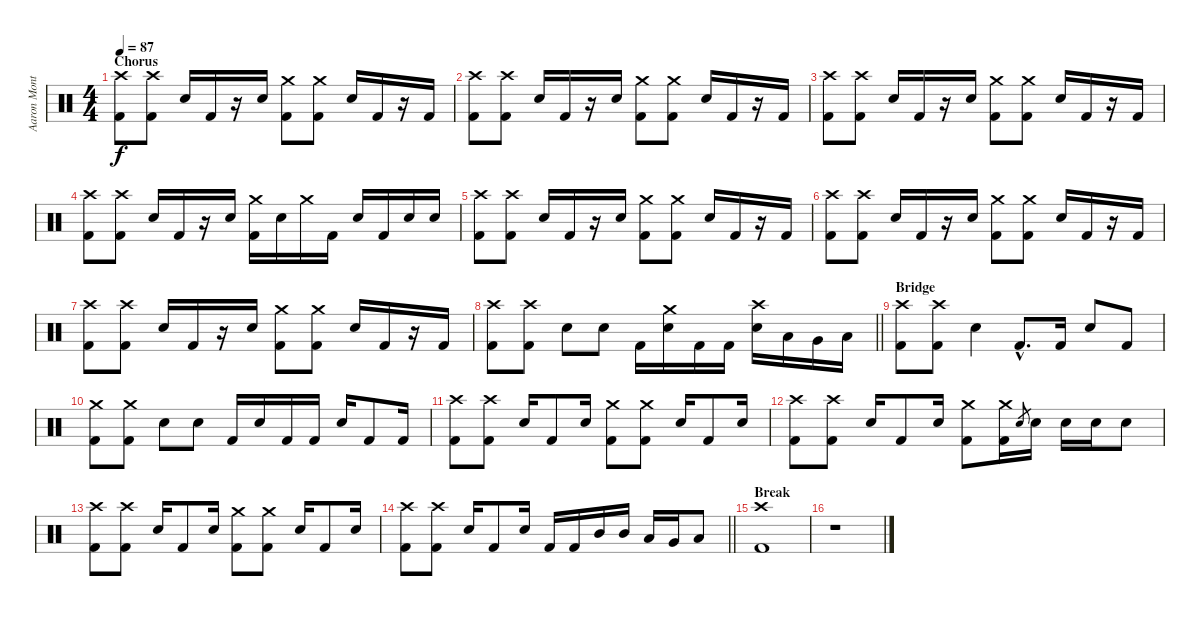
\track ("Aaron Montgomery (Drums)" "Aaron Mont") {instrument percussion}
\staff {score}
\articulation defaults
\ts (4 4)
\section ("" "Chorus")
\tempo 87
\clef neutral
\ks c
("Crash high (hit)" "Kick (hit) 2").8{dy f} ("Crash high (hit)" "Kick (hit) 2").8 "Electric Snare (hit)".16 "Kick (hit) 2".16 r.16 "Electric Snare (hit)".16 ("Crash medium (hit)" "Kick (hit) 2").8 ("Crash medium (hit)" "Kick (hit) 2").8 "Electric Snare (hit)".16 "Kick (hit) 2".16 r.16 "Kick (hit) 2".16 |
("Crash high (hit)" "Kick (hit) 2").8 ("Crash high (hit)" "Kick (hit) 2").8 "Electric Snare (hit)".16 "Kick (hit) 2".16 r.16 "Electric Snare (hit)".16 ("Crash medium (hit)" "Kick (hit) 2").8 ("Crash medium (hit)" "Kick (hit) 2").8 "Electric Snare (hit)".16 "Kick (hit) 2".16 r.16 "Kick (hit) 2".16 |
("Crash high (hit)" "Kick (hit) 2").8 ("Crash high (hit)" "Kick (hit) 2").8 "Electric Snare (hit)".16 "Kick (hit) 2".16 r.16 "Electric Snare (hit)".16 ("Crash medium (hit)" "Kick (hit) 2").8 ("Crash medium (hit)" "Kick (hit) 2").8 "Electric Snare (hit)".16 "Kick (hit) 2".16 r.16 "Kick (hit) 2".16 |
("Crash high (hit)" "Kick (hit) 2").8 ("Crash high (hit)" "Kick (hit) 2").8 "Electric Snare (hit)".16 "Kick (hit) 2".16 r.16 "Electric Snare (hit)".16 ("Crash medium (hit)" "Kick (hit) 2").16 "Electric Snare (hit)".16 "Crash medium (hit)".16 "Kick (hit) 2".16 "Electric Snare (hit)".16 "Kick (hit) 2".16 "Electric Snare (hit)".16 "Electric Snare (hit)".16 |
("Crash high (hit)" "Kick (hit) 2").8 ("Crash high (hit)" "Kick (hit) 2").8 "Electric Snare (hit)".16 "Kick (hit) 2".16 r.16 "Electric Snare (hit)".16 ("Crash medium (hit)" "Kick (hit) 2").8 ("Crash medium (hit)" "Kick (hit) 2").8 "Electric Snare (hit)".16 "Kick (hit) 2".16 r.16 "Kick (hit) 2".16 |
("Crash high (hit)" "Kick (hit) 2").8 ("Crash high (hit)" "Kick (hit) 2").8 "Electric Snare (hit)".16 "Kick (hit) 2".16 r.16 "Electric Snare (hit)".16 ("Crash medium (hit)" "Kick (hit) 2").8 ("Crash medium (hit)" "Kick (hit) 2").8 "Electric Snare (hit)".16 "Kick (hit) 2".16 r.16 "Kick (hit) 2".16 |
("Crash high (hit)" "Kick (hit) 2").8 ("Crash high (hit)" "Kick (hit) 2").8 "Electric Snare (hit)".16 "Kick (hit) 2".16 r.16 "Electric Snare (hit)".16 ("Crash medium (hit)" "Kick (hit) 2").8 ("Crash medium (hit)" "Kick (hit) 2").8 "Electric Snare (hit)".16 "Kick (hit) 2".16 r.16 "Kick (hit) 2".16 |
\barLineRight lightlight
("Crash high (hit)" "Kick (hit) 2").8 ("Crash high (hit)" "Kick (hit) 2").8 "Electric Snare (hit)".8 "Electric Snare (hit)".8 "Kick (hit) 2".16 ("Crash medium (hit)" "Electric Snare (hit)").16 "Kick (hit) 2".16 "Kick (hit) 2".16 ("Crash high (hit)" "Electric Snare (hit)").16 "Low Tom (hit)".16 "Very Low Tom (hit)".16 "Low Floor Tom (hit)".16 |
\section ("" "Bridge")
("Crash high (hit)" "Kick (hit) 2").8 ("Crash high (hit)" "Kick (hit) 2").8 "Electric Snare (hit)".4 "Kick (hit) 2"{hac}.8{d} "Kick (hit) 2".16 "Electric Snare (hit)".8 "Kick (hit) 2".8 |
("Crash medium (hit)" "Kick (hit) 2").8 ("Crash medium (hit)" "Kick (hit) 2").8 "Electric Snare (hit)".8 "Electric Snare (hit)".8 "Kick (hit) 2".16 "Electric Snare (hit)".16 "Kick (hit) 2".16 "Kick (hit) 2".16 "Electric Snare (hit)".16 "Kick (hit) 2".8 "Kick (hit) 2".16 |
("Crash high (hit)" "Kick (hit) 2").8 ("Crash high (hit)" "Kick (hit) 2").8 "Electric Snare (hit)".16 "Kick (hit) 2".8 "Electric Snare (hit)".16 ("Crash medium (hit)" "Kick (hit) 2").8 ("Crash medium (hit)" "Kick (hit) 2").8 "Electric Snare (hit)".16 "Kick (hit) 2".8 "Electric Snare (hit)".16 |
("Crash high (hit)" "Kick (hit) 2").8 ("Crash high (hit)" "Kick (hit) 2").8 "Electric Snare (hit)".16 "Kick (hit) 2".8 "Electric Snare (hit)".16 ("Crash medium (hit)" "Kick (hit) 2").8 ("Crash medium (hit)" "Kick (hit) 2").16 "Electric Snare (hit)".8{gr} "Electric Snare (hit)".16 "Electric Snare (hit)".16 "Electric Snare (hit)".16 "Electric Snare (hit)".8 |
("Crash high (hit)" "Kick (hit) 2").8 ("Crash high (hit)" "Kick (hit) 2").8 "Electric Snare (hit)".16 "Kick (hit) 2".8 "Electric Snare (hit)".16 ("Crash medium (hit)" "Kick (hit) 2").8 ("Crash medium (hit)" "Kick (hit) 2").8 "Electric Snare (hit)".16 "Kick (hit) 2".8 "Electric Snare (hit)".16 |
\barLineRight lightlight
("Crash high (hit)" "Kick (hit) 2").8 ("Crash high (hit)" "Kick (hit) 2").8 "Electric Snare (hit)".16 "Kick (hit) 2".8 "Electric Snare (hit)".16 "Kick (hit) 2".16 "Kick (hit) 2".16 "Mid Tom (hit)".16 "Mid Tom (hit)".16 "Low Tom (hit)".16 "Very Low Tom (hit)".16 "Low Floor Tom (hit)".8 |
\section ("" "Break")
("Crash high (hit)" "Kick (hit) 2").1 |
r.1
